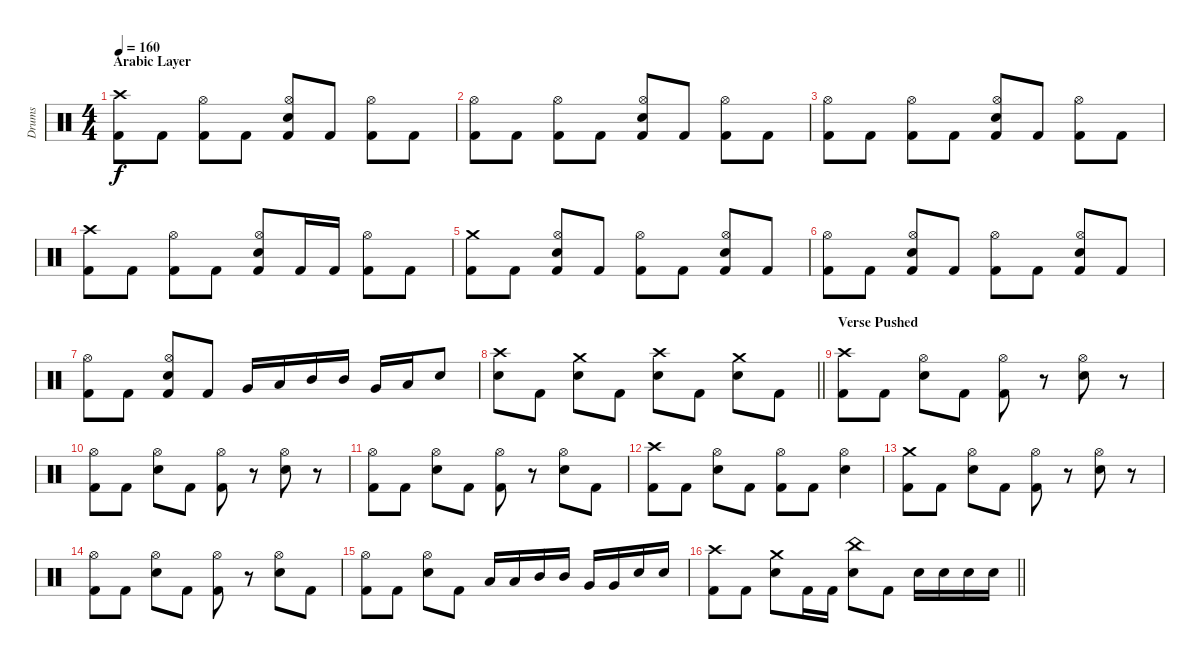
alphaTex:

\track ("Drums" "Drums") {instrument percussion}
\staff {score}
\articulation defaults
\ts (4 4)
\section ("" "Arabic Layer")
\tempo 160
\clef neutral
\ks aminor
("Crash high (hit)" "Kick (hit) 2").8{dy f} "Kick (hit) 2".8 ("Hi-Hat (open)" "Kick (hit) 2").8 "Kick (hit) 2".8 ("Hi-Hat (open)" "Electric Snare (hit)" "Kick (hit) 2").8 "Kick (hit) 2".8 ("Hi-Hat (open)" "Kick (hit) 2").8 "Kick (hit) 2".8 |
("Hi-Hat (open)" "Kick (hit) 2").8 "Kick (hit) 2".8 ("Hi-Hat (open)" "Kick (hit) 2").8 "Kick (hit) 2".8 ("Hi-Hat (open)" "Electric Snare (hit)" "Kick (hit) 2").8 "Kick (hit) 2".8 ("Hi-Hat (open)" "Kick (hit) 2").8 "Kick (hit) 2".8 |
("Hi-Hat (open)" "Kick (hit) 2").8 "Kick (hit) 2".8 ("Hi-Hat (open)" "Kick (hit) 2").8 "Kick (hit) 2".8 ("Hi-Hat (open)" "Electric Snare (hit)" "Kick (hit) 2").8 "Kick (hit) 2".8 ("Hi-Hat (open)" "Kick (hit) 2").8 "Kick (hit) 2".8 |
("Crash high (hit)" "Kick (hit) 2").8 "Kick (hit) 2".8 ("Hi-Hat (open)" "Kick (hit) 2").8 "Kick (hit) 2".8 ("Hi-Hat (open)" "Electric Snare (hit)" "Kick (hit) 2").8 "Kick (hit) 2".16 "Kick (hit) 2".16 ("Hi-Hat (open)" "Kick (hit) 2").8 "Kick (hit) 2".8 |
("Crash medium (hit)" "Kick (hit) 2").8 "Kick (hit) 2".8 ("Hi-Hat (open)" "Electric Snare (hit)" "Kick (hit) 2").8 "Kick (hit) 2".8 ("Hi-Hat (open)" "Kick (hit) 2").8 "Kick (hit) 2".8 ("Hi-Hat (open)" "Electric Snare (hit)" "Kick (hit) 2").8 "Kick (hit) 2".8 |
("Hi-Hat (open)" "Kick (hit) 2").8 "Kick (hit) 2".8 ("Hi-Hat (open)" "Electric Snare (hit)" "Kick (hit) 2").8 "Kick (hit) 2".8 ("Hi-Hat (open)" "Kick (hit) 2").8 "Kick (hit) 2".8 ("Hi-Hat (open)" "Electric Snare (hit)" "Kick (hit) 2").8 "Kick (hit) 2".8 |
("Hi-Hat (open)" "Kick (hit) 2").8 "Kick (hit) 2".8 ("Hi-Hat (open)" "Electric Snare (hit)" "Kick (hit) 2").8 "Kick (hit) 2".8 "Very Low Tom (hit)".16 "Low Tom (hit)".16 "Mid Tom (hit)".16 "Mid Tom (hit)".16 "Very Low Tom (hit)".16 "Low Tom (hit)".16 "Snare (hit) 2".8 |
\barLineRight lightlight
("Crash high (hit)" "Electric Snare (hit)").8 "Kick (hit) 2".8 ("Crash medium (hit)" "Electric Snare (hit)").8 "Kick (hit) 2".8 ("Crash high (hit)" "Electric Snare (hit)").8 "Kick (hit) 2".8 ("Crash medium (hit)" "Electric Snare (hit)").8 "Kick (hit) 2".8 |
\section ("" "Verse Pushed")
("Crash high (hit)" "Kick (hit) 2").8 "Kick (hit) 2".8 ("Hi-Hat (open)" "Electric Snare (hit)").8 "Kick (hit) 2".8 ("Hi-Hat (open)" "Kick (hit) 2").8 r.8 ("Hi-Hat (open)" "Electric Snare (hit)").8 r.8 |
("Hi-Hat (open)" "Kick (hit) 2").8 "Kick (hit) 2".8 ("Hi-Hat (open)" "Electric Snare (hit)").8 "Kick (hit) 2".8 ("Hi-Hat (open)" "Kick (hit) 2").8 r.8 ("Hi-Hat (open)" "Electric Snare (hit)").8 r.8 |
("Hi-Hat (open)" "Kick (hit) 2").8 "Kick (hit) 2".8 ("Hi-Hat (open)" "Electric Snare (hit)").8 "Kick (hit) 2".8 ("Hi-Hat (open)" "Kick (hit) 2").8 r.8 ("Hi-Hat (open)" "Electric Snare (hit)").8 "Kick (hit) 2".8 |
("Crash high (hit)" "Kick (hit) 2").8 "Kick (hit) 2".8 ("Hi-Hat (open)" "Electric Snare (hit)").8 "Kick (hit) 2".8 ("Hi-Hat (open)" "Kick (hit) 2").8 "Kick (hit) 2".8 ("Hi-Hat (open)" "Electric Snare (hit)").4 |
("Crash medium (hit)" "Kick (hit) 2").8 "Kick (hit) 2".8 ("Hi-Hat (open)" "Electric Snare (hit)").8 "Kick (hit) 2".8 ("Hi-Hat (open)" "Kick (hit) 2").8 r.8 ("Hi-Hat (open)" "Electric Snare (hit)").8 r.8 |
("Hi-Hat (open)" "Kick (hit) 2").8 "Kick (hit) 2".8 ("Hi-Hat (open)" "Electric Snare (hit)").8 "Kick (hit) 2".8 ("Hi-Hat (open)" "Kick (hit) 2").8 r.8 ("Hi-Hat (open)" "Electric Snare (hit)").8 "Kick (hit) 2".8 |
("Hi-Hat (open)" "Kick (hit) 2").8 "Kick (hit) 2".8 ("Hi-Hat (open)" "Snare (hit) 2").8 "Kick (hit) 2".8 "Low Tom (hit)".16 "Low Tom (hit)".16 "Mid Tom (hit)".16 "Mid Tom (hit)".16 "Very Low Tom (hit)".16 "Very Low Tom (hit)".16 "Electric Snare (hit)".16 "Snare (hit) 2".16 |
\barLineRight lightlight
("Crash high (hit)" "Kick (hit) 2").8 "Kick (hit) 2".8 ("Crash medium (hit)" "Electric Snare (hit)").8 "Kick (hit) 2".16 "Kick (hit) 2".16 ("China (hit)" "Electric Snare (hit)").8 "Kick (hit) 2".8 "Electric Snare (hit)".16 "Snare (hit) 2".16 "Snare (hit) 2".16 "Electric Snare (hit)".16
